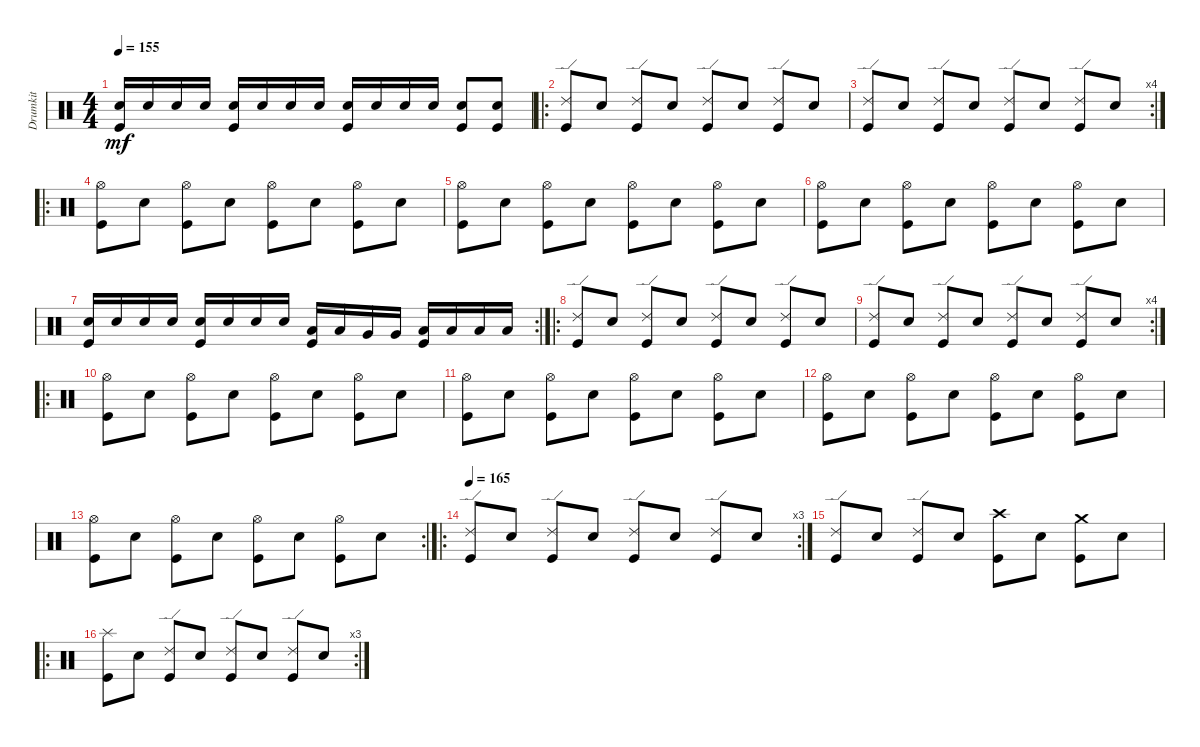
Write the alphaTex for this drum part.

\track ("Drumkit" "Drumkit") {instrument percussion}
\staff {score}
\articulation defaults
\ts (4 4)
\tempo 155
\clef neutral
\ks c
("Snare (hit) 2" "Kick (hit)").16{dy mf} "Snare (hit) 2".16 "Snare (hit) 2".16 "Snare (hit) 2".16 ("Snare (hit) 2" "Kick (hit)").16 "Snare (hit) 2".16 "Snare (hit) 2".16 "Snare (hit) 2".16 ("Snare (hit) 2" "Kick (hit)").16 "Snare (hit) 2".16 "Snare (hit) 2".16 "Snare (hit) 2".16 ("Snare (hit) 2" "Kick (hit)").8 ("Snare (hit) 2" "Kick (hit)").8 |
\ro
("Kick (hit)" "Ride (edge) 2").8 "Snare (hit) 2".8 ("Kick (hit)" "Ride (edge) 2").8 "Snare (hit) 2".8 ("Kick (hit)" "Ride (edge) 2").8 "Snare (hit) 2".8 ("Kick (hit)" "Ride (edge) 2").8 "Snare (hit) 2".8 |
\rc 4
("Kick (hit)" "Ride (edge) 2").8 "Snare (hit) 2".8 ("Kick (hit)" "Ride (edge) 2").8 "Snare (hit) 2".8 ("Kick (hit)" "Ride (edge) 2").8 "Snare (hit) 2".8 ("Kick (hit)" "Ride (edge) 2").8 "Snare (hit) 2".8 |
\ro
("Hi-Hat (open)" "Kick (hit)").8 "Snare (hit) 2".8 ("Hi-Hat (open)" "Kick (hit)").8 "Snare (hit) 2".8 ("Hi-Hat (open)" "Kick (hit)").8 "Snare (hit) 2".8 ("Hi-Hat (open)" "Kick (hit)").8 "Snare (hit) 2".8 |
("Hi-Hat (open)" "Kick (hit)").8 "Snare (hit) 2".8 ("Hi-Hat (open)" "Kick (hit)").8 "Snare (hit) 2".8 ("Hi-Hat (open)" "Kick (hit)").8 "Snare (hit) 2".8 ("Hi-Hat (open)" "Kick (hit)").8 "Snare (hit) 2".8 |
("Hi-Hat (open)" "Kick (hit)").8 "Snare (hit) 2".8 ("Hi-Hat (open)" "Kick (hit)").8 "Snare (hit) 2".8 ("Hi-Hat (open)" "Kick (hit)").8 "Snare (hit) 2".8 ("Hi-Hat (open)" "Kick (hit)").8 "Snare (hit) 2".8 |
\rc 2
("Snare (hit) 2" "Kick (hit)").16 "Snare (hit) 2".16 "Snare (hit) 2".16 "Snare (hit) 2".16 ("Snare (hit) 2" "Kick (hit)").16 "Snare (hit) 2".16 "Snare (hit) 2".16 "Snare (hit) 2".16 ("Low Tom (hit)" "Kick (hit)").16 "Low Tom (hit)".16 "Very Low Tom (hit)".16 "Very Low Tom (hit)".16 ("Low Floor Tom (hit)" "Kick (hit)").16 "Low Floor Tom (hit)".16 "Low Floor Tom (hit)".16 "Low Floor Tom (hit)".16 |
\ro
("Kick (hit)" "Ride (edge) 2").8 "Snare (hit) 2".8 ("Kick (hit)" "Ride (edge) 2").8 "Snare (hit) 2".8 ("Kick (hit)" "Ride (edge) 2").8 "Snare (hit) 2".8 ("Kick (hit)" "Ride (edge) 2").8 "Snare (hit) 2".8 |
\rc 4
("Kick (hit)" "Ride (edge) 2").8 "Snare (hit) 2".8 ("Kick (hit)" "Ride (edge) 2").8 "Snare (hit) 2".8 ("Kick (hit)" "Ride (edge) 2").8 "Snare (hit) 2".8 ("Kick (hit)" "Ride (edge) 2").8 "Snare (hit) 2".8 |
\ro
("Hi-Hat (open)" "Kick (hit)").8 "Snare (hit) 2".8 ("Hi-Hat (open)" "Kick (hit)").8 "Snare (hit) 2".8 ("Hi-Hat (open)" "Kick (hit)").8 "Snare (hit) 2".8 ("Hi-Hat (open)" "Kick (hit)").8 "Snare (hit) 2".8 |
("Hi-Hat (open)" "Kick (hit)").8 "Snare (hit) 2".8 ("Hi-Hat (open)" "Kick (hit)").8 "Snare (hit) 2".8 ("Hi-Hat (open)" "Kick (hit)").8 "Snare (hit) 2".8 ("Hi-Hat (open)" "Kick (hit)").8 "Snare (hit) 2".8 |
("Hi-Hat (open)" "Kick (hit)").8 "Snare (hit) 2".8 ("Hi-Hat (open)" "Kick (hit)").8 "Snare (hit) 2".8 ("Hi-Hat (open)" "Kick (hit)").8 "Snare (hit) 2".8 ("Hi-Hat (open)" "Kick (hit)").8 "Snare (hit) 2".8 |
\rc 2
("Hi-Hat (open)" "Kick (hit)").8 "Snare (hit) 2".8 ("Hi-Hat (open)" "Kick (hit)").8 "Snare (hit) 2".8 ("Hi-Hat (open)" "Kick (hit)").8 "Snare (hit) 2".8 ("Hi-Hat (open)" "Kick (hit)").8 "Snare (hit) 2".8 |
\ro
\rc 3
\tempo 165
("Kick (hit)" "Ride (edge) 2").8 "Snare (hit) 2".8 ("Kick (hit)" "Ride (edge) 2").8 "Snare (hit) 2".8 ("Kick (hit)" "Ride (edge) 2").8 "Snare (hit) 2".8 ("Kick (hit)" "Ride (edge) 2").8 "Snare (hit) 2".8 |
("Kick (hit)" "Ride (edge) 2").8 "Snare (hit) 2".8 ("Kick (hit)" "Ride (edge) 2").8 "Snare (hit) 2".8 ("Crash high (hit)" "Kick (hit)").8 "Snare (hit) 2".8 ("Crash medium (hit)" "Kick (hit)").8 "Snare (hit) 2".8 |
\ro
\rc 3
("Kick (hit)" "Splash (hit)").8 "Snare (hit) 2".8 ("Kick (hit)" "Ride (edge) 2").8 "Snare (hit) 2".8 ("Kick (hit)" "Ride (edge) 2").8 "Snare (hit) 2".8 ("Kick (hit)" "Ride (edge) 2").8 "Snare (hit) 2".8
